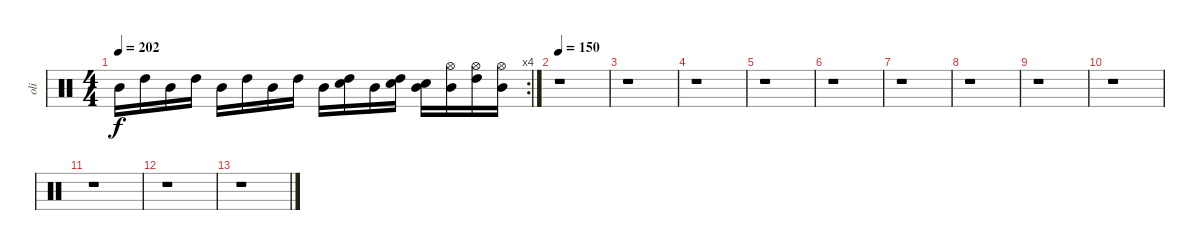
\track ("oli" "oli") {instrument percussion}
\staff {score}
\articulation defaults
\rc 4
\ts (4 4)
\tempo 202
\clef neutral
\ks c "Mid Tom (hit)".16{dy f} "High Tom (hit)".16 "Mid Tom (hit)".16 "High Tom (hit)".16 "Mid Tom (hit)".16 "High Tom (hit)".16 "Mid Tom (hit)".16 "High Tom (hit)".16 "Mid Tom (hit)".16
("High Tom (hit)" "Electric Snare (hit)").16 "Mid Tom (hit)".16 ("High Tom (hit)" "Electric Snare (hit)").16 ("Mid Tom (hit)" "Electric Snare (hit)").16 ("Mid Tom (hit)" "Hi-Hat (open)").16 ("High Tom (hit)" "Hi-Hat (open)").16 ("Mid Tom (hit)" "Hi-Hat (open)").16 |
\tempo 150
r.1 |
r.1 |
r.1 |
r.1 |
r.1 |
r.1 |
r.1 |
r.1 |
r.1 |
r.1 |
r.1 |
r.1
